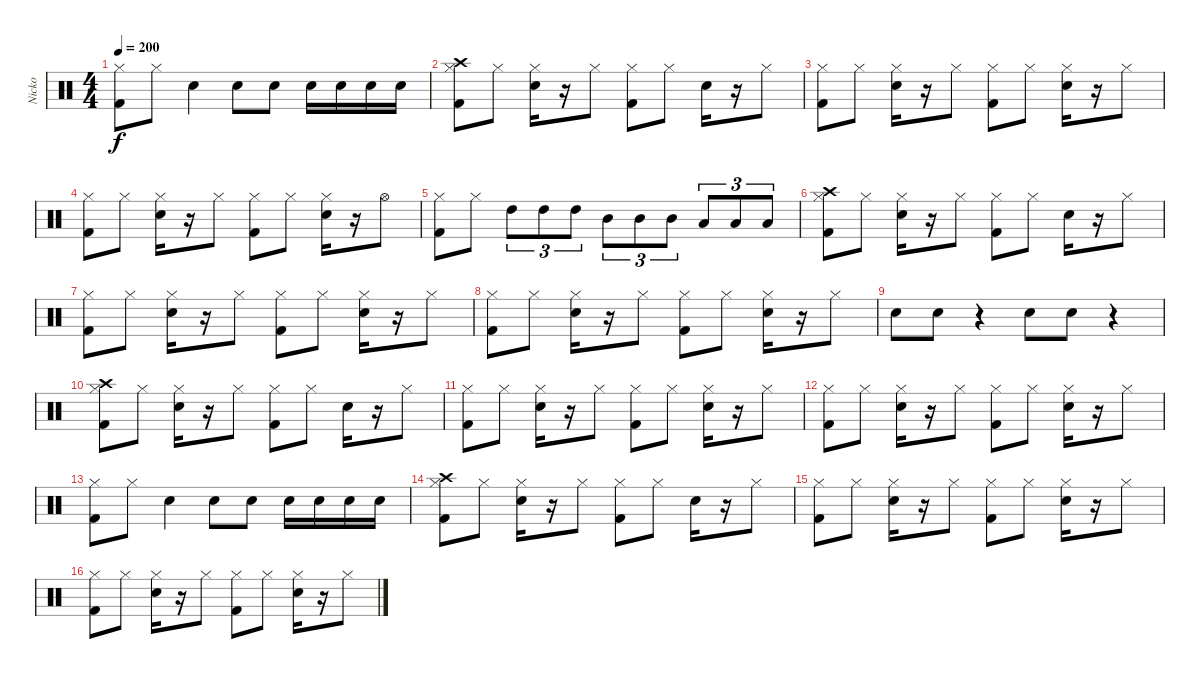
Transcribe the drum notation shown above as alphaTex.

\track ("Nicko" "Nicko") {instrument percussion}
\staff {score}
\articulation defaults
\ts (4 4)
\tempo 200
\clef neutral
\ks c
("Kick (hit) 2" "Hi-Hat (closed)").8{dy f} "Hi-Hat (closed)".8 "Snare (hit) 2".4 "Snare (hit) 2".8 "Snare (hit) 2".8 "Snare (hit) 2".16 "Snare (hit) 2".16 "Snare (hit) 2".16 "Snare (hit) 2".16 |
("Kick (hit) 2" "Hi-Hat (closed)" "Crash high (hit)").8 "Hi-Hat (closed)".8 ("Snare (hit) 2" "Hi-Hat (closed)").16 r.16 "Hi-Hat (closed)".8 ("Kick (hit) 2" "Hi-Hat (closed)").8 "Hi-Hat (closed)".8 "Snare (hit) 2".16 r.16 "Hi-Hat (closed)".8 |
("Kick (hit) 2" "Hi-Hat (closed)").8 "Hi-Hat (closed)".8 ("Snare (hit) 2" "Hi-Hat (closed)").16 r.16 "Hi-Hat (closed)".8 ("Kick (hit) 2" "Hi-Hat (closed)").8 "Hi-Hat (closed)".8 ("Snare (hit) 2" "Hi-Hat (closed)").16 r.16 "Hi-Hat (closed)".8 |
("Kick (hit) 2" "Hi-Hat (closed)").8 "Hi-Hat (closed)".8 ("Snare (hit) 2" "Hi-Hat (closed)").16 r.16 "Hi-Hat (closed)".8 ("Kick (hit) 2" "Hi-Hat (closed)").8 "Hi-Hat (closed)".8 ("Snare (hit) 2" "Hi-Hat (closed)").16 r.16 "Hi-Hat (open)".8 |
("Kick (hit) 2" "Hi-Hat (closed)").8 "Hi-Hat (closed)".8 "High Tom (hit)".8{tu (3 2)} "High Tom (hit)".8{tu (3 2)} "High Tom (hit)".8{tu (3 2)} "Mid Tom (hit)".8{tu (3 2)} "Mid Tom (hit)".8{tu (3 2)} "Mid Tom (hit)".8{tu (3 2)} "Low Tom (hit)".8{tu (3 2)} "Low Tom (hit)".8{tu (3 2)} "Low Tom (hit)".8{tu (3 2)} |
("Kick (hit) 2" "Hi-Hat (closed)" "Crash high (hit)").8 "Hi-Hat (closed)".8 ("Snare (hit) 2" "Hi-Hat (closed)").16 r.16 "Hi-Hat (closed)".8 ("Kick (hit) 2" "Hi-Hat (closed)").8 "Hi-Hat (closed)".8 "Snare (hit) 2".16 r.16 "Hi-Hat (closed)".8 |
("Kick (hit) 2" "Hi-Hat (closed)").8 "Hi-Hat (closed)".8 ("Snare (hit) 2" "Hi-Hat (closed)").16 r.16 "Hi-Hat (closed)".8 ("Kick (hit) 2" "Hi-Hat (closed)").8 "Hi-Hat (closed)".8 ("Snare (hit) 2" "Hi-Hat (closed)").16 r.16 "Hi-Hat (closed)".8 |
("Kick (hit) 2" "Hi-Hat (closed)").8 "Hi-Hat (closed)".8 ("Snare (hit) 2" "Hi-Hat (closed)").16 r.16 "Hi-Hat (closed)".8 ("Kick (hit) 2" "Hi-Hat (closed)").8 "Hi-Hat (closed)".8 ("Snare (hit) 2" "Hi-Hat (closed)").16 r.16 "Hi-Hat (closed)".8 |
"Snare (hit) 2".8 "Snare (hit) 2".8 r.4 "Snare (hit) 2".8 "Snare (hit) 2".8 r.4 |
("Kick (hit) 2" "Hi-Hat (closed)" "Crash high (hit)").8 "Hi-Hat (closed)".8 ("Snare (hit) 2" "Hi-Hat (closed)").16 r.16 "Hi-Hat (closed)".8 ("Kick (hit) 2" "Hi-Hat (closed)").8 "Hi-Hat (closed)".8 "Snare (hit) 2".16 r.16 "Hi-Hat (closed)".8 |
("Kick (hit) 2" "Hi-Hat (closed)").8 "Hi-Hat (closed)".8 ("Snare (hit) 2" "Hi-Hat (closed)").16 r.16 "Hi-Hat (closed)".8 ("Kick (hit) 2" "Hi-Hat (closed)").8 "Hi-Hat (closed)".8 ("Snare (hit) 2" "Hi-Hat (closed)").16 r.16 "Hi-Hat (closed)".8 |
("Kick (hit) 2" "Hi-Hat (closed)").8 "Hi-Hat (closed)".8 ("Snare (hit) 2" "Hi-Hat (closed)").16 r.16 "Hi-Hat (closed)".8 ("Kick (hit) 2" "Hi-Hat (closed)").8 "Hi-Hat (closed)".8 ("Snare (hit) 2" "Hi-Hat (closed)").16 r.16 "Hi-Hat (closed)".8 |
("Kick (hit) 2" "Hi-Hat (closed)").8 "Hi-Hat (closed)".8 "Snare (hit) 2".4 "Snare (hit) 2".8 "Snare (hit) 2".8 "Snare (hit) 2".16 "Snare (hit) 2".16 "Snare (hit) 2".16 "Snare (hit) 2".16 |
("Kick (hit) 2" "Hi-Hat (closed)" "Crash high (hit)").8 "Hi-Hat (closed)".8 ("Snare (hit) 2" "Hi-Hat (closed)").16 r.16 "Hi-Hat (closed)".8 ("Kick (hit) 2" "Hi-Hat (closed)").8 "Hi-Hat (closed)".8 "Snare (hit) 2".16 r.16 "Hi-Hat (closed)".8 |
("Kick (hit) 2" "Hi-Hat (closed)").8 "Hi-Hat (closed)".8 ("Snare (hit) 2" "Hi-Hat (closed)").16 r.16 "Hi-Hat (closed)".8 ("Kick (hit) 2" "Hi-Hat (closed)").8 "Hi-Hat (closed)".8 ("Snare (hit) 2" "Hi-Hat (closed)").16 r.16 "Hi-Hat (closed)".8 |
("Kick (hit) 2" "Hi-Hat (closed)").8 "Hi-Hat (closed)".8 ("Snare (hit) 2" "Hi-Hat (closed)").16 r.16 "Hi-Hat (closed)".8 ("Kick (hit) 2" "Hi-Hat (closed)").8 "Hi-Hat (closed)".8 ("Snare (hit) 2" "Hi-Hat (closed)").16 r.16 "Hi-Hat (closed)".8
